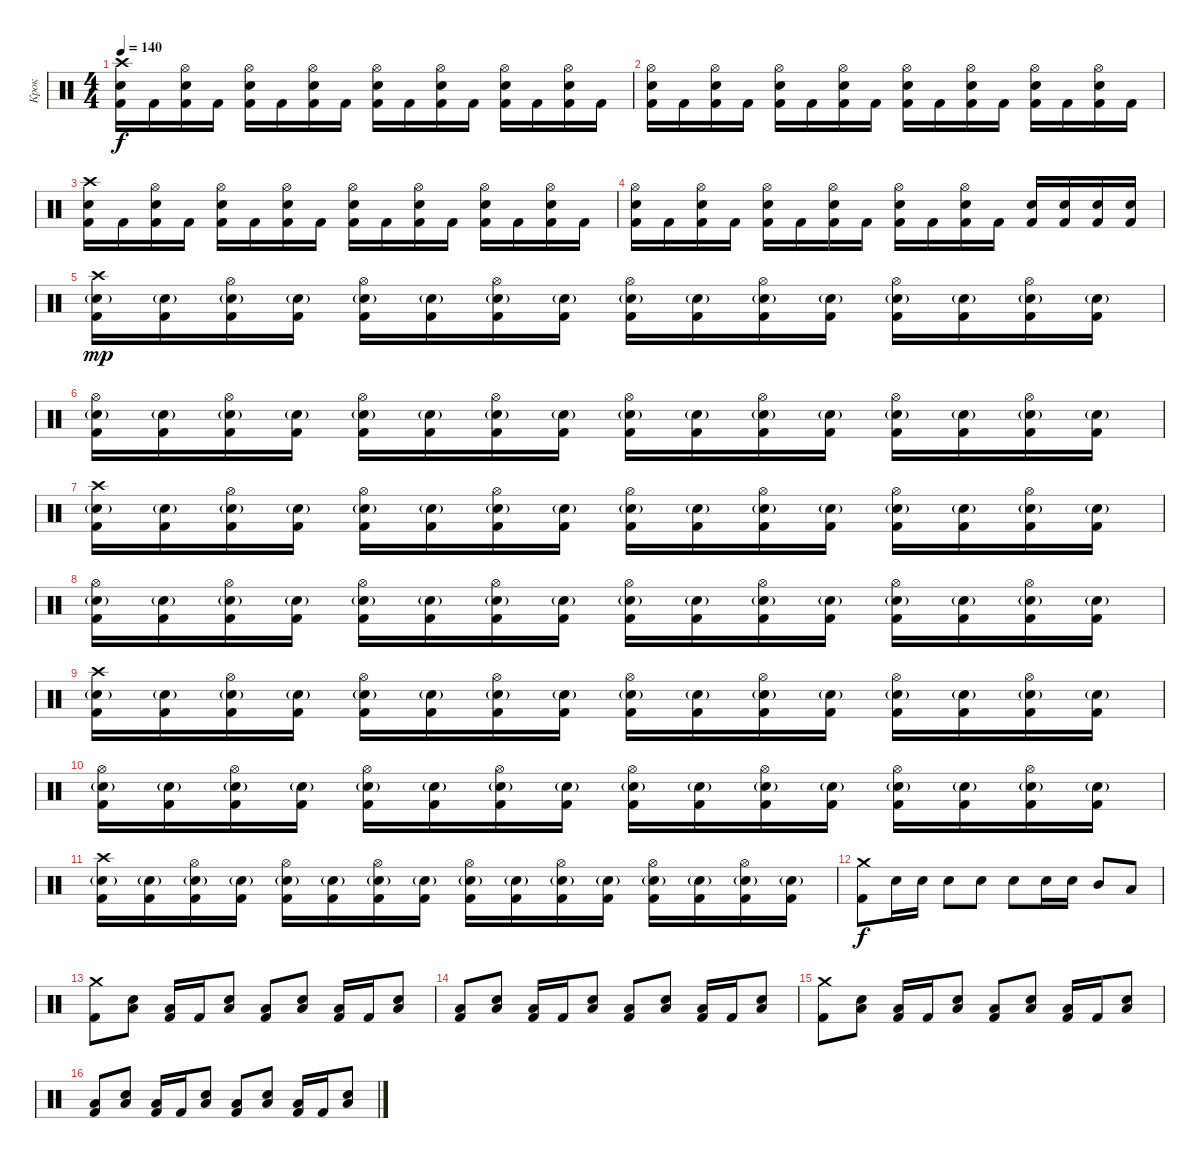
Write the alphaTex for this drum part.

\track ("Крок" "Крок") {instrument percussion}
\staff {score}
\articulation defaults
\ts (4 4)
\tempo 140
\clef neutral
\ks c
("Crash high (hit)" "Electric Snare (hit)" "Kick (hit) 2").16{dy f} "Kick (hit) 2".16 ("Hi-Hat (open)" "Electric Snare (hit)" "Kick (hit) 2").16 "Kick (hit) 2".16 ("Hi-Hat (open)" "Electric Snare (hit)" "Kick (hit) 2").16 "Kick (hit) 2".16 ("Hi-Hat (open)" "Electric Snare (hit)" "Kick (hit) 2").16 "Kick (hit) 2".16 ("Hi-Hat (open)" "Electric Snare (hit)" "Kick (hit) 2").16 "Kick (hit) 2".16 ("Hi-Hat (open)" "Electric Snare (hit)" "Kick (hit) 2").16 "Kick (hit) 2".16 ("Hi-Hat (open)" "Electric Snare (hit)" "Kick (hit) 2").16 "Kick (hit) 2".16 ("Hi-Hat (open)" "Electric Snare (hit)" "Kick (hit) 2").16 "Kick (hit) 2".16 |
("Hi-Hat (open)" "Electric Snare (hit)" "Kick (hit) 2").16 "Kick (hit) 2".16 ("Hi-Hat (open)" "Electric Snare (hit)" "Kick (hit) 2").16 "Kick (hit) 2".16 ("Hi-Hat (open)" "Electric Snare (hit)" "Kick (hit) 2").16 "Kick (hit) 2".16 ("Hi-Hat (open)" "Electric Snare (hit)" "Kick (hit) 2").16 "Kick (hit) 2".16 ("Hi-Hat (open)" "Electric Snare (hit)" "Kick (hit) 2").16 "Kick (hit) 2".16 ("Hi-Hat (open)" "Electric Snare (hit)" "Kick (hit) 2").16 "Kick (hit) 2".16 ("Hi-Hat (open)" "Electric Snare (hit)" "Kick (hit) 2").16 "Kick (hit) 2".16 ("Hi-Hat (open)" "Electric Snare (hit)" "Kick (hit) 2").16 "Kick (hit) 2".16 |
("Crash high (hit)" "Electric Snare (hit)" "Kick (hit) 2").16 "Kick (hit) 2".16 ("Hi-Hat (open)" "Electric Snare (hit)" "Kick (hit) 2").16 "Kick (hit) 2".16 ("Hi-Hat (open)" "Electric Snare (hit)" "Kick (hit) 2").16 "Kick (hit) 2".16 ("Hi-Hat (open)" "Electric Snare (hit)" "Kick (hit) 2").16 "Kick (hit) 2".16 ("Hi-Hat (open)" "Electric Snare (hit)" "Kick (hit) 2").16 "Kick (hit) 2".16 ("Hi-Hat (open)" "Electric Snare (hit)" "Kick (hit) 2").16 "Kick (hit) 2".16 ("Hi-Hat (open)" "Electric Snare (hit)" "Kick (hit) 2").16 "Kick (hit) 2".16 ("Hi-Hat (open)" "Electric Snare (hit)" "Kick (hit) 2").16 "Kick (hit) 2".16 |
("Hi-Hat (open)" "Electric Snare (hit)" "Kick (hit) 2").16 "Kick (hit) 2".16 ("Hi-Hat (open)" "Electric Snare (hit)" "Kick (hit) 2").16 "Kick (hit) 2".16 ("Hi-Hat (open)" "Electric Snare (hit)" "Kick (hit) 2").16 "Kick (hit) 2".16 ("Hi-Hat (open)" "Electric Snare (hit)" "Kick (hit) 2").16 "Kick (hit) 2".16 ("Hi-Hat (open)" "Electric Snare (hit)" "Kick (hit) 2").16 "Kick (hit) 2".16 ("Hi-Hat (open)" "Electric Snare (hit)" "Kick (hit) 2").16 "Kick (hit) 2".16 ("Electric Snare (hit)" "Kick (hit) 2").16 ("Electric Snare (hit)" "Kick (hit) 2").16 ("Electric Snare (hit)" "Kick (hit) 2").16 ("Electric Snare (hit)" "Kick (hit) 2").16 |
("Crash high (hit)" "Electric Snare (hit)"{g} "Kick (hit) 2").16{dy mp} ("Electric Snare (hit)"{g} "Kick (hit) 2").16 ("Hi-Hat (open)" "Electric Snare (hit)"{g} "Kick (hit) 2").16 ("Electric Snare (hit)"{g} "Kick (hit) 2").16 ("Hi-Hat (open)" "Electric Snare (hit)"{g} "Kick (hit) 2").16 ("Electric Snare (hit)"{g} "Kick (hit) 2").16 ("Hi-Hat (open)" "Electric Snare (hit)"{g} "Kick (hit) 2").16 ("Electric Snare (hit)"{g} "Kick (hit) 2").16 ("Hi-Hat (open)" "Electric Snare (hit)"{g} "Kick (hit) 2").16 ("Electric Snare (hit)"{g} "Kick (hit) 2").16 ("Hi-Hat (open)" "Electric Snare (hit)"{g} "Kick (hit) 2").16 ("Electric Snare (hit)"{g} "Kick (hit) 2").16 ("Hi-Hat (open)" "Electric Snare (hit)"{g} "Kick (hit) 2").16 ("Electric Snare (hit)"{g} "Kick (hit) 2").16 ("Hi-Hat (open)" "Electric Snare (hit)"{g} "Kick (hit) 2").16 ("Electric Snare (hit)"{g} "Kick (hit) 2").16 |
("Hi-Hat (open)" "Electric Snare (hit)"{g} "Kick (hit) 2").16 ("Electric Snare (hit)"{g} "Kick (hit) 2").16 ("Hi-Hat (open)" "Electric Snare (hit)"{g} "Kick (hit) 2").16 ("Electric Snare (hit)"{g} "Kick (hit) 2").16 ("Hi-Hat (open)" "Electric Snare (hit)"{g} "Kick (hit) 2").16 ("Electric Snare (hit)"{g} "Kick (hit) 2").16 ("Hi-Hat (open)" "Electric Snare (hit)"{g} "Kick (hit) 2").16 ("Electric Snare (hit)"{g} "Kick (hit) 2").16 ("Hi-Hat (open)" "Electric Snare (hit)"{g} "Kick (hit) 2").16 ("Electric Snare (hit)"{g} "Kick (hit) 2").16 ("Hi-Hat (open)" "Electric Snare (hit)"{g} "Kick (hit) 2").16 ("Electric Snare (hit)"{g} "Kick (hit) 2").16 ("Hi-Hat (open)" "Electric Snare (hit)"{g} "Kick (hit) 2").16 ("Electric Snare (hit)"{g} "Kick (hit) 2").16 ("Hi-Hat (open)" "Electric Snare (hit)"{g} "Kick (hit) 2").16 ("Electric Snare (hit)"{g} "Kick (hit) 2").16 |
("Crash high (hit)" "Electric Snare (hit)"{g} "Kick (hit) 2").16 ("Electric Snare (hit)"{g} "Kick (hit) 2").16 ("Hi-Hat (open)" "Electric Snare (hit)"{g} "Kick (hit) 2").16 ("Electric Snare (hit)"{g} "Kick (hit) 2").16 ("Hi-Hat (open)" "Electric Snare (hit)"{g} "Kick (hit) 2").16 ("Electric Snare (hit)"{g} "Kick (hit) 2").16 ("Hi-Hat (open)" "Electric Snare (hit)"{g} "Kick (hit) 2").16 ("Electric Snare (hit)"{g} "Kick (hit) 2").16 ("Hi-Hat (open)" "Electric Snare (hit)"{g} "Kick (hit) 2").16 ("Electric Snare (hit)"{g} "Kick (hit) 2").16 ("Hi-Hat (open)" "Electric Snare (hit)"{g} "Kick (hit) 2").16 ("Electric Snare (hit)"{g} "Kick (hit) 2").16 ("Hi-Hat (open)" "Electric Snare (hit)"{g} "Kick (hit) 2").16 ("Electric Snare (hit)"{g} "Kick (hit) 2").16 ("Hi-Hat (open)" "Electric Snare (hit)"{g} "Kick (hit) 2").16 ("Electric Snare (hit)"{g} "Kick (hit) 2").16 |
("Hi-Hat (open)" "Electric Snare (hit)"{g} "Kick (hit) 2").16 ("Electric Snare (hit)"{g} "Kick (hit) 2").16 ("Hi-Hat (open)" "Electric Snare (hit)"{g} "Kick (hit) 2").16 ("Electric Snare (hit)"{g} "Kick (hit) 2").16 ("Hi-Hat (open)" "Electric Snare (hit)"{g} "Kick (hit) 2").16 ("Electric Snare (hit)"{g} "Kick (hit) 2").16 ("Hi-Hat (open)" "Electric Snare (hit)"{g} "Kick (hit) 2").16 ("Electric Snare (hit)"{g} "Kick (hit) 2").16 ("Hi-Hat (open)" "Electric Snare (hit)"{g} "Kick (hit) 2").16 ("Electric Snare (hit)"{g} "Kick (hit) 2").16 ("Hi-Hat (open)" "Electric Snare (hit)"{g} "Kick (hit) 2").16 ("Electric Snare (hit)"{g} "Kick (hit) 2").16 ("Hi-Hat (open)" "Electric Snare (hit)"{g} "Kick (hit) 2").16 ("Electric Snare (hit)"{g} "Kick (hit) 2").16 ("Hi-Hat (open)" "Electric Snare (hit)"{g} "Kick (hit) 2").16 ("Electric Snare (hit)"{g} "Kick (hit) 2").16 |
("Crash high (hit)" "Electric Snare (hit)"{g} "Kick (hit) 2").16 ("Electric Snare (hit)"{g} "Kick (hit) 2").16 ("Hi-Hat (open)" "Electric Snare (hit)"{g} "Kick (hit) 2").16 ("Electric Snare (hit)"{g} "Kick (hit) 2").16 ("Hi-Hat (open)" "Electric Snare (hit)"{g} "Kick (hit) 2").16 ("Electric Snare (hit)"{g} "Kick (hit) 2").16 ("Hi-Hat (open)" "Electric Snare (hit)"{g} "Kick (hit) 2").16 ("Electric Snare (hit)"{g} "Kick (hit) 2").16 ("Hi-Hat (open)" "Electric Snare (hit)"{g} "Kick (hit) 2").16 ("Electric Snare (hit)"{g} "Kick (hit) 2").16 ("Hi-Hat (open)" "Electric Snare (hit)"{g} "Kick (hit) 2").16 ("Electric Snare (hit)"{g} "Kick (hit) 2").16 ("Hi-Hat (open)" "Electric Snare (hit)"{g} "Kick (hit) 2").16 ("Electric Snare (hit)"{g} "Kick (hit) 2").16 ("Hi-Hat (open)" "Electric Snare (hit)"{g} "Kick (hit) 2").16 ("Electric Snare (hit)"{g} "Kick (hit) 2").16 |
("Hi-Hat (open)" "Electric Snare (hit)"{g} "Kick (hit) 2").16 ("Electric Snare (hit)"{g} "Kick (hit) 2").16 ("Hi-Hat (open)" "Electric Snare (hit)"{g} "Kick (hit) 2").16 ("Electric Snare (hit)"{g} "Kick (hit) 2").16 ("Hi-Hat (open)" "Electric Snare (hit)"{g} "Kick (hit) 2").16 ("Electric Snare (hit)"{g} "Kick (hit) 2").16 ("Hi-Hat (open)" "Electric Snare (hit)"{g} "Kick (hit) 2").16 ("Electric Snare (hit)"{g} "Kick (hit) 2").16 ("Hi-Hat (open)" "Electric Snare (hit)"{g} "Kick (hit) 2").16 ("Electric Snare (hit)"{g} "Kick (hit) 2").16 ("Hi-Hat (open)" "Electric Snare (hit)"{g} "Kick (hit) 2").16 ("Electric Snare (hit)"{g} "Kick (hit) 2").16 ("Hi-Hat (open)" "Electric Snare (hit)"{g} "Kick (hit) 2").16 ("Electric Snare (hit)"{g} "Kick (hit) 2").16 ("Hi-Hat (open)" "Electric Snare (hit)"{g} "Kick (hit) 2").16 ("Electric Snare (hit)"{g} "Kick (hit) 2").16 |
("Crash high (hit)" "Electric Snare (hit)"{g} "Kick (hit) 2").16 ("Electric Snare (hit)"{g} "Kick (hit) 2").16 ("Hi-Hat (open)" "Electric Snare (hit)"{g} "Kick (hit) 2").16 ("Electric Snare (hit)"{g} "Kick (hit) 2").16 ("Hi-Hat (open)" "Electric Snare (hit)"{g} "Kick (hit) 2").16 ("Electric Snare (hit)"{g} "Kick (hit) 2").16 ("Hi-Hat (open)" "Electric Snare (hit)"{g} "Kick (hit) 2").16 ("Electric Snare (hit)"{g} "Kick (hit) 2").16 ("Hi-Hat (open)" "Electric Snare (hit)"{g} "Kick (hit) 2").16 ("Electric Snare (hit)"{g} "Kick (hit) 2").16 ("Hi-Hat (open)" "Electric Snare (hit)"{g} "Kick (hit) 2").16 ("Electric Snare (hit)"{g} "Kick (hit) 2").16 ("Hi-Hat (open)" "Electric Snare (hit)"{g} "Kick (hit) 2").16 ("Electric Snare (hit)"{g} "Kick (hit) 2").16 ("Hi-Hat (open)" "Electric Snare (hit)"{g} "Kick (hit) 2").16 ("Electric Snare (hit)"{g} "Kick (hit) 2").16 |
("Crash medium (hit)" "Kick (hit) 2").8{dy f} "Electric Snare (hit)".16 "Electric Snare (hit)".16 "Electric Snare (hit)".8 "Electric Snare (hit)".8 "Electric Snare (hit)".8 "Electric Snare (hit)".16 "Electric Snare (hit)".16 "Mid Tom (hit)".8 "Low Tom (hit)".8 |
("Crash medium (hit)" "Kick (hit) 2").8 ("Low Floor Tom (hit)" "Electric Snare (hit)").8 ("Low Floor Tom (hit)" "Kick (hit) 2").16 "Kick (hit) 2".16 ("Low Floor Tom (hit)" "Electric Snare (hit)").8 ("Low Floor Tom (hit)" "Kick (hit) 2").8 ("Low Floor Tom (hit)" "Electric Snare (hit)").8 ("Low Floor Tom (hit)" "Kick (hit) 2").16 "Kick (hit) 2".16 ("Low Floor Tom (hit)" "Electric Snare (hit)").8 |
("Low Floor Tom (hit)" "Kick (hit) 2").8 ("Low Floor Tom (hit)" "Electric Snare (hit)").8 ("Low Floor Tom (hit)" "Kick (hit) 2").16 "Kick (hit) 2".16 ("Low Floor Tom (hit)" "Electric Snare (hit)").8 ("Low Floor Tom (hit)" "Kick (hit) 2").8 ("Low Floor Tom (hit)" "Electric Snare (hit)").8 ("Low Floor Tom (hit)" "Kick (hit) 2").16 "Kick (hit) 2".16 ("Low Floor Tom (hit)" "Electric Snare (hit)").8 |
("Crash medium (hit)" "Kick (hit) 2").8 ("Low Floor Tom (hit)" "Electric Snare (hit)").8 ("Low Floor Tom (hit)" "Kick (hit) 2").16 "Kick (hit) 2".16 ("Low Floor Tom (hit)" "Electric Snare (hit)").8 ("Low Floor Tom (hit)" "Kick (hit) 2").8 ("Low Floor Tom (hit)" "Electric Snare (hit)").8 ("Low Floor Tom (hit)" "Kick (hit) 2").16 "Kick (hit) 2".16 ("Low Floor Tom (hit)" "Electric Snare (hit)").8 |
("Low Floor Tom (hit)" "Kick (hit) 2").8 ("Low Floor Tom (hit)" "Electric Snare (hit)").8 ("Low Floor Tom (hit)" "Kick (hit) 2").16 "Kick (hit) 2".16 ("Low Floor Tom (hit)" "Electric Snare (hit)").8 ("Low Floor Tom (hit)" "Kick (hit) 2").8 ("Low Floor Tom (hit)" "Electric Snare (hit)").8 ("Low Floor Tom (hit)" "Kick (hit) 2").16 "Kick (hit) 2".16 ("Low Floor Tom (hit)" "Electric Snare (hit)").8
